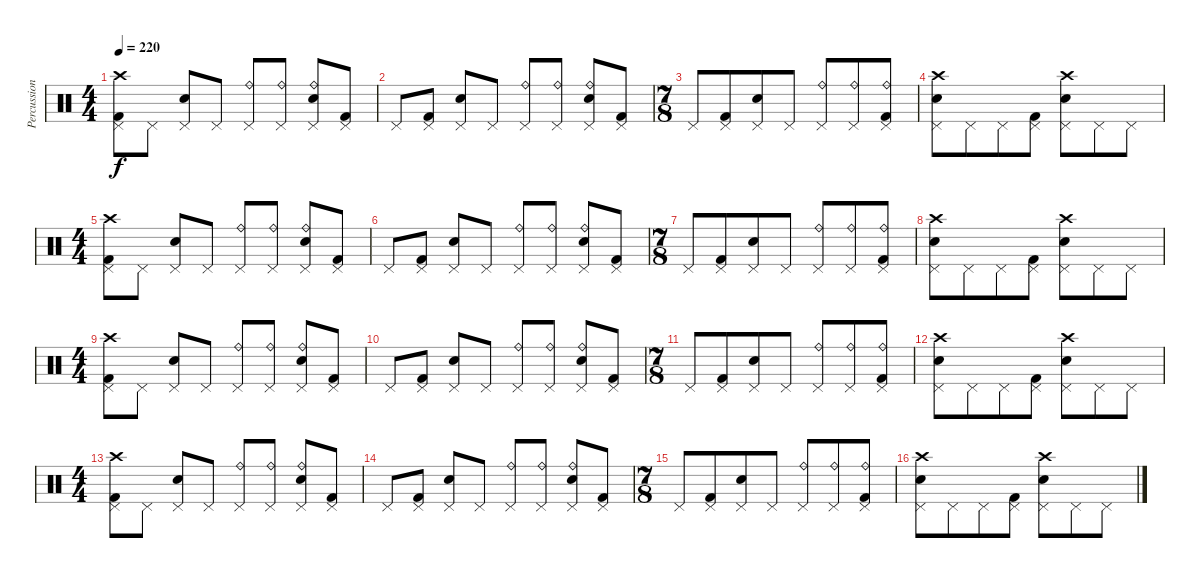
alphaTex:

\track ("Percussion" "Percussion") {instrument percussion}
\staff {score}
\articulation defaults
\ts (4 4)
\tempo 220
\clef neutral
\ks c
("Crash high (hit)" "Pedal Hi-Hat (hit)" "Kick (hit) 2").8{dy f} "Pedal Hi-Hat (hit)".8 ("Pedal Hi-Hat (hit)" "Snare (hit) 2").8 "Pedal Hi-Hat (hit)".8 ("Ride (bell)" "Pedal Hi-Hat (hit)").8 ("Ride (bell)" "Pedal Hi-Hat (hit)").8 ("Ride (bell)" "Pedal Hi-Hat (hit)" "Snare (hit) 2").8 ("Pedal Hi-Hat (hit)" "Kick (hit) 2").8 |
"Pedal Hi-Hat (hit)".8 ("Pedal Hi-Hat (hit)" "Kick (hit) 2").8 ("Pedal Hi-Hat (hit)" "Snare (hit) 2").8 "Pedal Hi-Hat (hit)".8 ("Ride (bell)" "Pedal Hi-Hat (hit)").8 ("Ride (bell)" "Pedal Hi-Hat (hit)").8 ("Ride (bell)" "Pedal Hi-Hat (hit)" "Snare (hit) 2").8 ("Pedal Hi-Hat (hit)" "Kick (hit) 2").8 |
\ts (7 8)
"Pedal Hi-Hat (hit)".8 ("Pedal Hi-Hat (hit)" "Kick (hit) 2").8 ("Pedal Hi-Hat (hit)" "Snare (hit) 2").8 "Pedal Hi-Hat (hit)".8 ("Ride (bell)" "Pedal Hi-Hat (hit)").8 ("Ride (bell)" "Pedal Hi-Hat (hit)").8 ("Ride (bell)" "Pedal Hi-Hat (hit)" "Kick (hit) 2").8 |
("Pedal Hi-Hat (hit)" "Crash high (hit)" "Snare (hit) 2").8 "Pedal Hi-Hat (hit)".8 "Pedal Hi-Hat (hit)".8 ("Pedal Hi-Hat (hit)" "Kick (hit) 2").8 ("Pedal Hi-Hat (hit)" "Crash high (hit)" "Snare (hit) 2").8 "Pedal Hi-Hat (hit)".8 "Pedal Hi-Hat (hit)".8 |
\ts (4 4)
("Crash high (hit)" "Pedal Hi-Hat (hit)" "Kick (hit) 2").8 "Pedal Hi-Hat (hit)".8 ("Pedal Hi-Hat (hit)" "Snare (hit) 2").8 "Pedal Hi-Hat (hit)".8 ("Ride (bell)" "Pedal Hi-Hat (hit)").8 ("Ride (bell)" "Pedal Hi-Hat (hit)").8 ("Ride (bell)" "Pedal Hi-Hat (hit)" "Snare (hit) 2").8 ("Pedal Hi-Hat (hit)" "Kick (hit) 2").8 |
"Pedal Hi-Hat (hit)".8 ("Pedal Hi-Hat (hit)" "Kick (hit) 2").8 ("Pedal Hi-Hat (hit)" "Snare (hit) 2").8 "Pedal Hi-Hat (hit)".8 ("Ride (bell)" "Pedal Hi-Hat (hit)").8 ("Ride (bell)" "Pedal Hi-Hat (hit)").8 ("Ride (bell)" "Pedal Hi-Hat (hit)" "Snare (hit) 2").8 ("Pedal Hi-Hat (hit)" "Kick (hit) 2").8 |
\ts (7 8)
"Pedal Hi-Hat (hit)".8 ("Pedal Hi-Hat (hit)" "Kick (hit) 2").8 ("Pedal Hi-Hat (hit)" "Snare (hit) 2").8 "Pedal Hi-Hat (hit)".8 ("Ride (bell)" "Pedal Hi-Hat (hit)").8 ("Ride (bell)" "Pedal Hi-Hat (hit)").8 ("Ride (bell)" "Pedal Hi-Hat (hit)" "Kick (hit) 2").8 |
("Pedal Hi-Hat (hit)" "Crash high (hit)" "Snare (hit) 2").8 "Pedal Hi-Hat (hit)".8 "Pedal Hi-Hat (hit)".8 ("Pedal Hi-Hat (hit)" "Kick (hit) 2").8 ("Pedal Hi-Hat (hit)" "Crash high (hit)" "Snare (hit) 2").8 "Pedal Hi-Hat (hit)".8 "Pedal Hi-Hat (hit)".8 |
\ts (4 4)
("Crash high (hit)" "Pedal Hi-Hat (hit)" "Kick (hit) 2").8 "Pedal Hi-Hat (hit)".8 ("Pedal Hi-Hat (hit)" "Snare (hit) 2").8 "Pedal Hi-Hat (hit)".8 ("Ride (bell)" "Pedal Hi-Hat (hit)").8 ("Ride (bell)" "Pedal Hi-Hat (hit)").8 ("Ride (bell)" "Pedal Hi-Hat (hit)" "Snare (hit) 2").8 ("Pedal Hi-Hat (hit)" "Kick (hit) 2").8 |
"Pedal Hi-Hat (hit)".8 ("Pedal Hi-Hat (hit)" "Kick (hit) 2").8 ("Pedal Hi-Hat (hit)" "Snare (hit) 2").8 "Pedal Hi-Hat (hit)".8 ("Ride (bell)" "Pedal Hi-Hat (hit)").8 ("Ride (bell)" "Pedal Hi-Hat (hit)").8 ("Ride (bell)" "Pedal Hi-Hat (hit)" "Snare (hit) 2").8 ("Pedal Hi-Hat (hit)" "Kick (hit) 2").8 |
\ts (7 8)
"Pedal Hi-Hat (hit)".8 ("Pedal Hi-Hat (hit)" "Kick (hit) 2").8 ("Pedal Hi-Hat (hit)" "Snare (hit) 2").8 "Pedal Hi-Hat (hit)".8 ("Ride (bell)" "Pedal Hi-Hat (hit)").8 ("Ride (bell)" "Pedal Hi-Hat (hit)").8 ("Ride (bell)" "Pedal Hi-Hat (hit)" "Kick (hit) 2").8 |
("Pedal Hi-Hat (hit)" "Crash high (hit)" "Snare (hit) 2").8 "Pedal Hi-Hat (hit)".8 "Pedal Hi-Hat (hit)".8 ("Pedal Hi-Hat (hit)" "Kick (hit) 2").8 ("Pedal Hi-Hat (hit)" "Crash high (hit)" "Snare (hit) 2").8 "Pedal Hi-Hat (hit)".8 "Pedal Hi-Hat (hit)".8 |
\ts (4 4)
("Crash high (hit)" "Pedal Hi-Hat (hit)" "Kick (hit) 2").8 "Pedal Hi-Hat (hit)".8 ("Pedal Hi-Hat (hit)" "Snare (hit) 2").8 "Pedal Hi-Hat (hit)".8 ("Ride (bell)" "Pedal Hi-Hat (hit)").8 ("Ride (bell)" "Pedal Hi-Hat (hit)").8 ("Ride (bell)" "Pedal Hi-Hat (hit)" "Snare (hit) 2").8 ("Pedal Hi-Hat (hit)" "Kick (hit) 2").8 |
"Pedal Hi-Hat (hit)".8 ("Pedal Hi-Hat (hit)" "Kick (hit) 2").8 ("Pedal Hi-Hat (hit)" "Snare (hit) 2").8 "Pedal Hi-Hat (hit)".8 ("Ride (bell)" "Pedal Hi-Hat (hit)").8 ("Ride (bell)" "Pedal Hi-Hat (hit)").8 ("Ride (bell)" "Pedal Hi-Hat (hit)" "Snare (hit) 2").8 ("Pedal Hi-Hat (hit)" "Kick (hit) 2").8 |
\ts (7 8)
"Pedal Hi-Hat (hit)".8 ("Pedal Hi-Hat (hit)" "Kick (hit) 2").8 ("Pedal Hi-Hat (hit)" "Snare (hit) 2").8 "Pedal Hi-Hat (hit)".8 ("Ride (bell)" "Pedal Hi-Hat (hit)").8 ("Ride (bell)" "Pedal Hi-Hat (hit)").8 ("Ride (bell)" "Pedal Hi-Hat (hit)" "Kick (hit) 2").8 |
("Pedal Hi-Hat (hit)" "Crash high (hit)" "Snare (hit) 2").8 "Pedal Hi-Hat (hit)".8 "Pedal Hi-Hat (hit)".8 ("Pedal Hi-Hat (hit)" "Kick (hit) 2").8 ("Pedal Hi-Hat (hit)" "Crash high (hit)" "Snare (hit) 2").8 "Pedal Hi-Hat (hit)".8 "Pedal Hi-Hat (hit)".8
